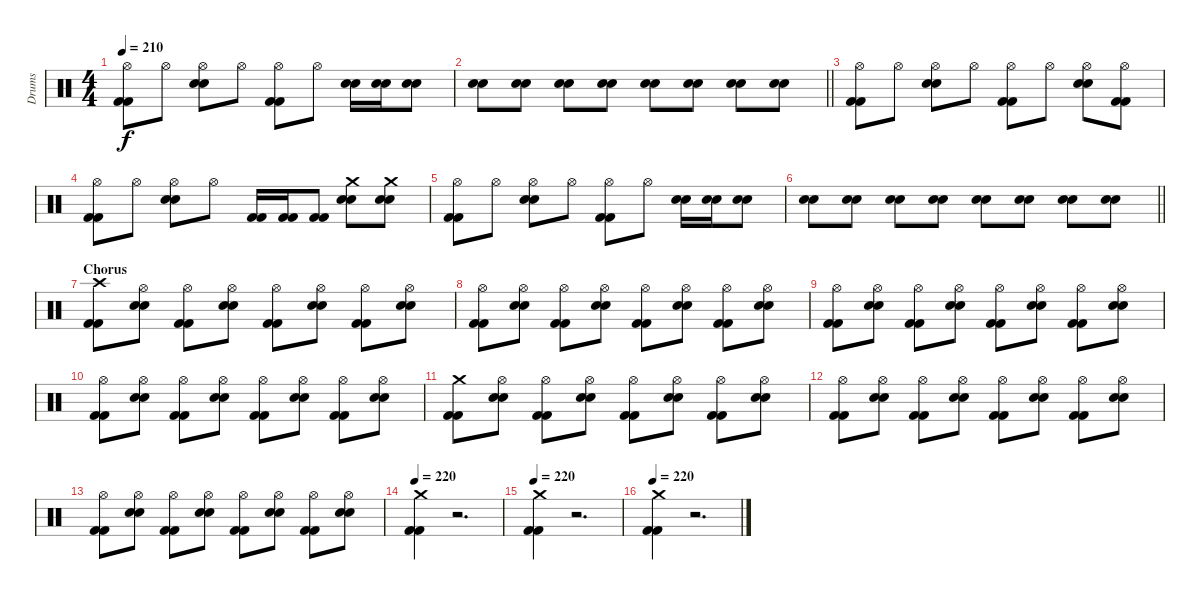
\track ("Drums" "Drums") {instrument percussion}
\staff {score}
\articulation defaults
\ts (4 4)
\tempo 210
\clef neutral
\ks c
("Hi-Hat (open)" "Kick (hit) 2" "Kick (hit) 2").8{dy f} "Hi-Hat (open)".8 ("Hi-Hat (open)" "Snare (hit) 2" "Snare (hit) 2").8 "Hi-Hat (open)".8 ("Hi-Hat (open)" "Kick (hit) 2" "Kick (hit) 2").8 "Hi-Hat (open)".8 ("Snare (hit) 2" "Snare (hit) 2").16 ("Snare (hit) 2" "Snare (hit) 2").16 ("Snare (hit) 2" "Snare (hit) 2").8 |
\barLineRight lightlight
("Snare (hit) 2" "Snare (hit) 2").8 ("Snare (hit) 2" "Snare (hit) 2").8 ("Snare (hit) 2" "Snare (hit) 2").8 ("Snare (hit) 2" "Snare (hit) 2").8 ("Snare (hit) 2" "Snare (hit) 2").8 ("Snare (hit) 2" "Snare (hit) 2").8 ("Snare (hit) 2" "Snare (hit) 2").8 ("Snare (hit) 2" "Snare (hit) 2").8 |
("Hi-Hat (open)" "Kick (hit) 2" "Kick (hit) 2").8 "Hi-Hat (open)".8 ("Hi-Hat (open)" "Snare (hit) 2" "Snare (hit) 2").8 "Hi-Hat (open)".8 ("Hi-Hat (open)" "Kick (hit) 2" "Kick (hit) 2").8 "Hi-Hat (open)".8 ("Hi-Hat (open)" "Snare (hit) 2" "Snare (hit) 2").8 ("Hi-Hat (open)" "Kick (hit) 2" "Kick (hit) 2").8 |
("Hi-Hat (open)" "Kick (hit) 2" "Kick (hit) 2").8 "Hi-Hat (open)".8 ("Hi-Hat (open)" "Snare (hit) 2" "Snare (hit) 2").8 "Hi-Hat (open)".8 ("Kick (hit) 2" "Kick (hit) 2").16 ("Kick (hit) 2" "Kick (hit) 2").16 ("Kick (hit) 2" "Kick (hit) 2").8 ("Crash medium (hit)" "Snare (hit) 2" "Snare (hit) 2").8 ("Crash medium (hit)" "Snare (hit) 2" "Snare (hit) 2").8 |
("Hi-Hat (open)" "Kick (hit) 2" "Kick (hit) 2").8 "Hi-Hat (open)".8 ("Hi-Hat (open)" "Snare (hit) 2" "Snare (hit) 2").8 "Hi-Hat (open)".8 ("Hi-Hat (open)" "Kick (hit) 2" "Kick (hit) 2").8 "Hi-Hat (open)".8 ("Snare (hit) 2" "Snare (hit) 2").16 ("Snare (hit) 2" "Snare (hit) 2").16 ("Snare (hit) 2" "Snare (hit) 2").8 |
\barLineRight lightlight
("Snare (hit) 2" "Snare (hit) 2").8 ("Snare (hit) 2" "Snare (hit) 2").8 ("Snare (hit) 2" "Snare (hit) 2").8 ("Snare (hit) 2" "Snare (hit) 2").8 ("Snare (hit) 2" "Snare (hit) 2").8 ("Snare (hit) 2" "Snare (hit) 2").8 ("Snare (hit) 2" "Snare (hit) 2").8 ("Snare (hit) 2" "Snare (hit) 2").8 |
\section ("" "Chorus")
("Crash high (hit)" "Kick (hit) 2" "Kick (hit) 2").8 ("Hi-Hat (open)" "Snare (hit) 2" "Snare (hit) 2").8 ("Hi-Hat (open)" "Kick (hit) 2" "Kick (hit) 2").8 ("Hi-Hat (open)" "Snare (hit) 2" "Snare (hit) 2").8 ("Hi-Hat (open)" "Kick (hit) 2" "Kick (hit) 2").8 ("Hi-Hat (open)" "Snare (hit) 2" "Snare (hit) 2").8 ("Hi-Hat (open)" "Kick (hit) 2" "Kick (hit) 2").8 ("Hi-Hat (open)" "Snare (hit) 2" "Snare (hit) 2").8 |
("Hi-Hat (open)" "Kick (hit) 2" "Kick (hit) 2").8 ("Hi-Hat (open)" "Snare (hit) 2" "Snare (hit) 2").8 ("Hi-Hat (open)" "Kick (hit) 2" "Kick (hit) 2").8 ("Hi-Hat (open)" "Snare (hit) 2" "Snare (hit) 2").8 ("Hi-Hat (open)" "Kick (hit) 2" "Kick (hit) 2").8 ("Hi-Hat (open)" "Snare (hit) 2" "Snare (hit) 2").8 ("Hi-Hat (open)" "Kick (hit) 2" "Kick (hit) 2").8 ("Hi-Hat (open)" "Snare (hit) 2" "Snare (hit) 2").8 |
("Hi-Hat (open)" "Kick (hit) 2" "Kick (hit) 2").8 ("Hi-Hat (open)" "Snare (hit) 2" "Snare (hit) 2").8 ("Hi-Hat (open)" "Kick (hit) 2" "Kick (hit) 2").8 ("Hi-Hat (open)" "Snare (hit) 2" "Snare (hit) 2").8 ("Hi-Hat (open)" "Kick (hit) 2" "Kick (hit) 2").8 ("Hi-Hat (open)" "Snare (hit) 2" "Snare (hit) 2").8 ("Hi-Hat (open)" "Kick (hit) 2" "Kick (hit) 2").8 ("Hi-Hat (open)" "Snare (hit) 2" "Snare (hit) 2").8 |
("Hi-Hat (open)" "Kick (hit) 2" "Kick (hit) 2").8 ("Hi-Hat (open)" "Snare (hit) 2" "Snare (hit) 2").8 ("Hi-Hat (open)" "Kick (hit) 2" "Kick (hit) 2").8 ("Hi-Hat (open)" "Snare (hit) 2" "Snare (hit) 2").8 ("Hi-Hat (open)" "Kick (hit) 2" "Kick (hit) 2").8 ("Hi-Hat (open)" "Snare (hit) 2" "Snare (hit) 2").8 ("Hi-Hat (open)" "Kick (hit) 2" "Kick (hit) 2").8 ("Hi-Hat (open)" "Snare (hit) 2" "Snare (hit) 2").8 |
("Crash medium (hit)" "Kick (hit) 2" "Kick (hit) 2").8 ("Hi-Hat (open)" "Snare (hit) 2" "Snare (hit) 2").8 ("Hi-Hat (open)" "Kick (hit) 2" "Kick (hit) 2").8 ("Hi-Hat (open)" "Snare (hit) 2" "Snare (hit) 2").8 ("Hi-Hat (open)" "Kick (hit) 2" "Kick (hit) 2").8 ("Hi-Hat (open)" "Snare (hit) 2" "Snare (hit) 2").8 ("Hi-Hat (open)" "Kick (hit) 2" "Kick (hit) 2").8 ("Hi-Hat (open)" "Snare (hit) 2" "Snare (hit) 2").8 |
("Hi-Hat (open)" "Kick (hit) 2" "Kick (hit) 2").8 ("Hi-Hat (open)" "Snare (hit) 2" "Snare (hit) 2").8 ("Hi-Hat (open)" "Kick (hit) 2" "Kick (hit) 2").8 ("Hi-Hat (open)" "Snare (hit) 2" "Snare (hit) 2").8 ("Hi-Hat (open)" "Kick (hit) 2" "Kick (hit) 2").8 ("Hi-Hat (open)" "Snare (hit) 2" "Snare (hit) 2").8 ("Hi-Hat (open)" "Kick (hit) 2" "Kick (hit) 2").8 ("Hi-Hat (open)" "Snare (hit) 2" "Snare (hit) 2").8 |
("Hi-Hat (open)" "Kick (hit) 2" "Kick (hit) 2").8 ("Hi-Hat (open)" "Snare (hit) 2" "Snare (hit) 2").8 ("Hi-Hat (open)" "Kick (hit) 2" "Kick (hit) 2").8 ("Hi-Hat (open)" "Snare (hit) 2" "Snare (hit) 2").8 ("Hi-Hat (open)" "Kick (hit) 2" "Kick (hit) 2").8 ("Hi-Hat (open)" "Snare (hit) 2" "Snare (hit) 2").8 ("Hi-Hat (open)" "Kick (hit) 2" "Kick (hit) 2").8 ("Hi-Hat (open)" "Snare (hit) 2" "Snare (hit) 2").8 |
\tempo 220
("Crash medium (hit)" "Kick (hit) 2" "Kick (hit) 2").4 r.2{d} |
\tempo 220
("Crash medium (hit)" "Kick (hit) 2" "Kick (hit) 2").4 r.2{d} |
\tempo 220
("Crash medium (hit)" "Kick (hit) 2" "Kick (hit) 2").4 r.2{d}
